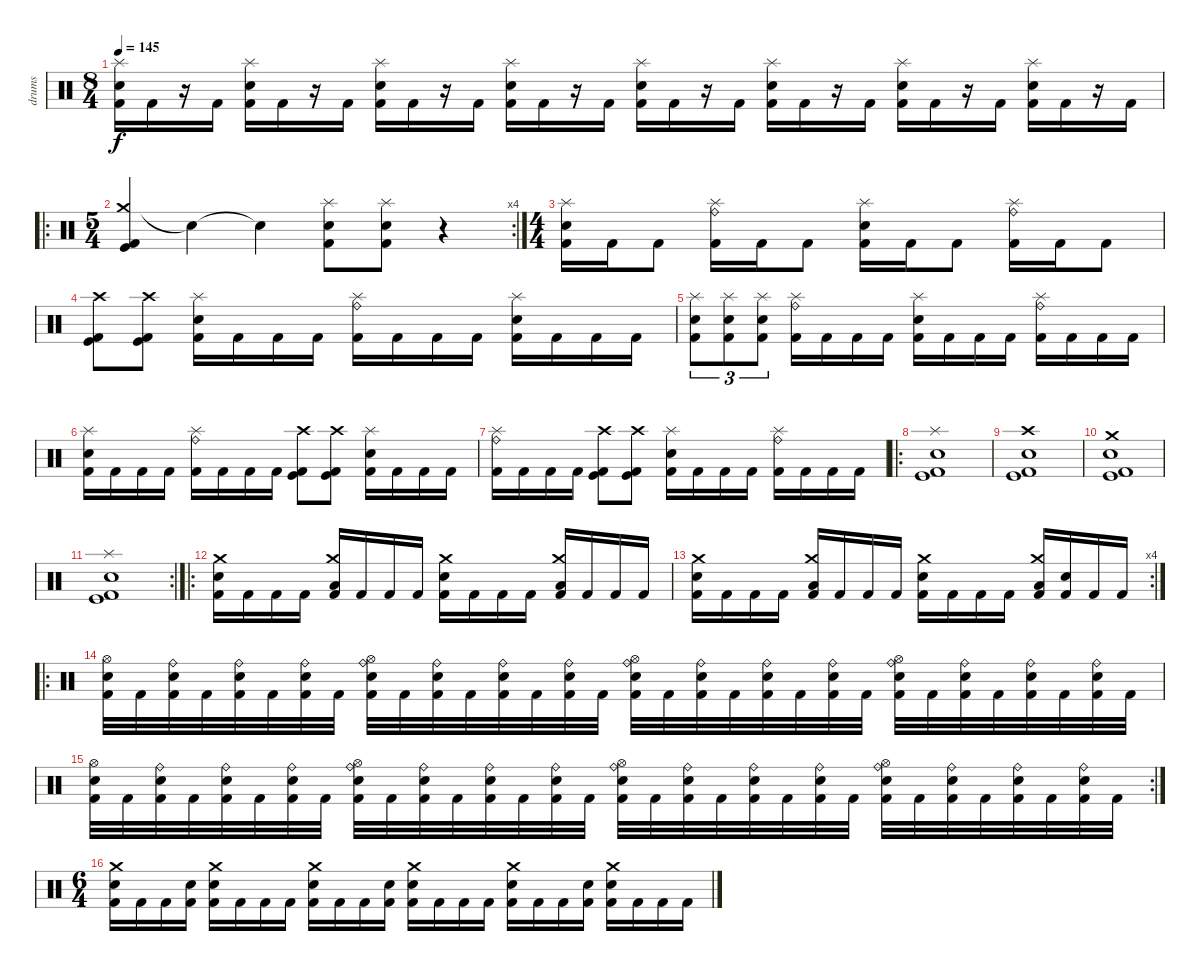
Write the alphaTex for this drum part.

\track ("drums" "drums") {instrument percussion}
\staff {score}
\articulation defaults
\ts (8 4)
\tempo 145
\clef neutral
\ks c
("Splash (hit)" "Electric Snare (hit)" "Kick (hit) 2").16{dy f} "Kick (hit) 2".16 r.16 "Kick (hit) 2".16 ("Splash (hit)" "Electric Snare (hit)" "Kick (hit) 2").16 "Kick (hit) 2".16 r.16 "Kick (hit) 2".16 ("Splash (hit)" "Electric Snare (hit)" "Kick (hit) 2").16 "Kick (hit) 2".16 r.16 "Kick (hit) 2".16 ("Splash (hit)" "Electric Snare (hit)" "Kick (hit) 2").16 "Kick (hit) 2".16 r.16 "Kick (hit) 2".16 ("Splash (hit)" "Electric Snare (hit)" "Kick (hit) 2").16 "Kick (hit) 2".16 r.16 "Kick (hit) 2".16 ("Splash (hit)" "Electric Snare (hit)" "Kick (hit) 2").16 "Kick (hit) 2".16 r.16 "Kick (hit) 2".16 ("Splash (hit)" "Electric Snare (hit)" "Kick (hit) 2").16 "Kick (hit) 2".16 r.16 "Kick (hit) 2".16 ("Splash (hit)" "Electric Snare (hit)" "Kick (hit) 2").16 "Kick (hit) 2".16 r.16 "Kick (hit) 2".16 |
\ro
\rc 4
\ts (5 4)
("Crash medium (hit)" "Kick (hit)" "Kick (hit) 2").4 "Snare (hit)"{t}.4 "Snare (hit)"{t}.4 ("Splash (hit)" "Electric Snare (hit)" "Kick (hit) 2").8 ("Splash (hit)" "Electric Snare (hit)" "Kick (hit) 2").8 r.4 |
\ts (4 4)
("Splash (hit)" "Electric Snare (hit)" "Kick (hit) 2").16 "Kick (hit) 2".16 "Kick (hit) 2".8 ("Splash (hit)" "Ride (bell)" "Kick (hit) 2").16 "Kick (hit) 2".16 "Kick (hit) 2".8 ("Splash (hit)" "Electric Snare (hit)" "Kick (hit) 2").16 "Kick (hit) 2".16 "Kick (hit) 2".8 ("Splash (hit)" "Ride (bell)" "Kick (hit) 2").16 "Kick (hit) 2".16 "Kick (hit) 2".8 |
("Crash high (hit)" "Kick (hit)" "Kick (hit) 2").8 ("Crash high (hit)" "Kick (hit)" "Kick (hit) 2").8 ("Splash (hit)" "Electric Snare (hit)" "Kick (hit) 2").16 "Kick (hit) 2".16 "Kick (hit) 2".16 "Kick (hit) 2".16 ("Splash (hit)" "Ride (bell)" "Kick (hit) 2").16 "Kick (hit) 2".16 "Kick (hit) 2".16 "Kick (hit) 2".16 ("Splash (hit)" "Electric Snare (hit)" "Kick (hit) 2").16 "Kick (hit) 2".16 "Kick (hit) 2".16 "Kick (hit) 2".16 |
("Splash (hit)" "Electric Snare (hit)" "Kick (hit) 2").8{tu (3 2)} ("Splash (hit)" "Electric Snare (hit)" "Kick (hit) 2").8{tu (3 2)} ("Splash (hit)" "Electric Snare (hit)" "Kick (hit) 2").8{tu (3 2)} ("Splash (hit)" "Ride (bell)" "Kick (hit) 2").16 "Kick (hit) 2".16 "Kick (hit) 2".16 "Kick (hit) 2".16 ("Splash (hit)" "Electric Snare (hit)" "Kick (hit) 2").16 "Kick (hit) 2".16 "Kick (hit) 2".16 "Kick (hit) 2".16 ("Splash (hit)" "Ride (bell)" "Kick (hit) 2").16 "Kick (hit) 2".16 "Kick (hit) 2".16 "Kick (hit) 2".16 |
("Splash (hit)" "Electric Snare (hit)" "Kick (hit) 2").16 "Kick (hit) 2".16 "Kick (hit) 2".16 "Kick (hit) 2".16 ("Splash (hit)" "Ride (bell)" "Kick (hit) 2").16 "Kick (hit) 2".16 "Kick (hit) 2".16 "Kick (hit) 2".16 ("Crash high (hit)" "Kick (hit)" "Kick (hit) 2").8 ("Crash high (hit)" "Kick (hit)" "Kick (hit) 2").8 ("Splash (hit)" "Electric Snare (hit)" "Kick (hit) 2").16 "Kick (hit) 2".16 "Kick (hit) 2".16 "Kick (hit) 2".16 |
("Splash (hit)" "Ride (bell)" "Kick (hit) 2").16 "Kick (hit) 2".16 "Kick (hit) 2".16 "Kick (hit) 2".16 ("Crash high (hit)" "Kick (hit)" "Kick (hit) 2").8 ("Crash high (hit)" "Kick (hit)" "Kick (hit) 2").8 ("Splash (hit)" "Electric Snare (hit)" "Kick (hit) 2").16 "Kick (hit) 2".16 "Kick (hit) 2".16 "Kick (hit) 2".16 ("Splash (hit)" "Ride (bell)" "Kick (hit) 2").16 "Kick (hit) 2".16 "Kick (hit) 2".16 "Kick (hit) 2".16 |
\ro
("Splash (hit)" "Electric Snare (hit)" "Kick (hit)" "Kick (hit) 2").1 |
("Crash high (hit)" "Electric Snare (hit)" "Kick (hit)" "Kick (hit) 2").1 |
("Crash medium (hit)" "Electric Snare (hit)" "Kick (hit)" "Kick (hit) 2").1 |
\rc 2
("Splash (hit)" "Electric Snare (hit)" "Kick (hit)" "Kick (hit) 2").1 |
\ro
("Crash medium (hit)" "Electric Snare (hit)" "Kick (hit) 2").16 "Kick (hit) 2".16 "Kick (hit) 2".16 "Kick (hit) 2".16 ("Crash medium (hit)" "Low Floor Tom (hit)" "Kick (hit) 2").16 "Kick (hit) 2".16 "Kick (hit) 2".16 "Kick (hit) 2".16 ("Crash medium (hit)" "Electric Snare (hit)" "Kick (hit) 2").16 "Kick (hit) 2".16 "Kick (hit) 2".16 "Kick (hit) 2".16 ("Crash medium (hit)" "Low Floor Tom (hit)" "Kick (hit) 2").16 "Kick (hit) 2".16 "Kick (hit) 2".16 "Kick (hit) 2".16 |
\rc 4
("Crash medium (hit)" "Electric Snare (hit)" "Kick (hit) 2").16 "Kick (hit) 2".16 "Kick (hit) 2".16 "Kick (hit) 2".16 ("Crash medium (hit)" "Low Floor Tom (hit)" "Kick (hit) 2").16 "Kick (hit) 2".16 "Kick (hit) 2".16 "Kick (hit) 2".16 ("Crash medium (hit)" "Electric Snare (hit)" "Kick (hit) 2").16 "Kick (hit) 2".16 "Kick (hit) 2".16 "Kick (hit) 2".16 ("Crash medium (hit)" "Low Floor Tom (hit)" "Kick (hit) 2").16 ("Electric Snare (hit)" "Kick (hit) 2").16 "Kick (hit) 2".16 "Kick (hit) 2".16 |
\ro
("Electric Snare (hit)" "Hi-Hat (open)" "Kick (hit) 2").32 "Kick (hit) 2".32 ("Electric Snare (hit)" "Ride (bell)" "Kick (hit) 2").32 "Kick (hit) 2".32 ("Electric Snare (hit)" "Ride (bell)" "Kick (hit) 2").32 "Kick (hit) 2".32 ("Electric Snare (hit)" "Ride (bell)" "Kick (hit) 2").32 "Kick (hit) 2".32 ("Electric Snare (hit)" "Hi-Hat (open)" "Ride (bell)" "Kick (hit) 2").32 "Kick (hit) 2".32 ("Electric Snare (hit)" "Ride (bell)" "Kick (hit) 2").32 "Kick (hit) 2".32 ("Electric Snare (hit)" "Ride (bell)" "Kick (hit) 2").32 "Kick (hit) 2".32 ("Electric Snare (hit)" "Ride (bell)" "Kick (hit) 2").32 "Kick (hit) 2".32 ("Electric Snare (hit)" "Hi-Hat (open)" "Ride (bell)" "Kick (hit) 2").32 "Kick (hit) 2".32 ("Electric Snare (hit)" "Ride (bell)" "Kick (hit) 2").32 "Kick (hit) 2".32 ("Electric Snare (hit)" "Ride (bell)" "Kick (hit) 2").32 "Kick (hit) 2".32 ("Electric Snare (hit)" "Ride (bell)" "Kick (hit) 2").32 "Kick (hit) 2".32 ("Electric Snare (hit)" "Hi-Hat (open)" "Ride (bell)" "Kick (hit) 2").32 "Kick (hit) 2".32 ("Electric Snare (hit)" "Ride (bell)" "Kick (hit) 2").32 "Kick (hit) 2".32 ("Electric Snare (hit)" "Ride (bell)" "Kick (hit) 2").32 "Kick (hit) 2".32 ("Electric Snare (hit)" "Ride (bell)" "Kick (hit) 2").32 "Kick (hit) 2".32 |
\rc 2
("Electric Snare (hit)" "Hi-Hat (open)" "Kick (hit) 2").32 "Kick (hit) 2".32 ("Electric Snare (hit)" "Ride (bell)" "Kick (hit) 2").32 "Kick (hit) 2".32 ("Electric Snare (hit)" "Ride (bell)" "Kick (hit) 2").32 "Kick (hit) 2".32 ("Electric Snare (hit)" "Ride (bell)" "Kick (hit) 2").32 "Kick (hit) 2".32 ("Electric Snare (hit)" "Hi-Hat (open)" "Ride (bell)" "Kick (hit) 2").32 "Kick (hit) 2".32 ("Electric Snare (hit)" "Ride (bell)" "Kick (hit) 2").32 "Kick (hit) 2".32 ("Electric Snare (hit)" "Ride (bell)" "Kick (hit) 2").32 "Kick (hit) 2".32 ("Electric Snare (hit)" "Ride (bell)" "Kick (hit) 2").32 "Kick (hit) 2".32 ("Electric Snare (hit)" "Hi-Hat (open)" "Ride (bell)" "Kick (hit) 2").32 "Kick (hit) 2".32 ("Electric Snare (hit)" "Ride (bell)" "Kick (hit) 2").32 "Kick (hit) 2".32 ("Electric Snare (hit)" "Ride (bell)" "Kick (hit) 2").32 "Kick (hit) 2".32 ("Electric Snare (hit)" "Ride (bell)" "Kick (hit) 2").32 "Kick (hit) 2".32 ("Electric Snare (hit)" "Hi-Hat (open)" "Ride (bell)" "Kick (hit) 2").32 "Kick (hit) 2".32 ("Electric Snare (hit)" "Ride (bell)" "Kick (hit) 2").32 "Kick (hit) 2".32 ("Electric Snare (hit)" "Ride (bell)" "Kick (hit) 2").32 "Kick (hit) 2".32 ("Electric Snare (hit)" "Ride (bell)" "Kick (hit) 2").32 "Kick (hit) 2".32 |
\ts (6 4)
("Crash medium (hit)" "Electric Snare (hit)" "Kick (hit) 2").16 "Kick (hit) 2".16 "Kick (hit) 2".16 ("Electric Snare (hit)" "Kick (hit) 2").16 ("Crash medium (hit)" "Electric Snare (hit)" "Kick (hit) 2").16 "Kick (hit) 2".16 "Kick (hit) 2".16 "Kick (hit) 2".16 ("Crash medium (hit)" "Electric Snare (hit)" "Kick (hit) 2").16 "Kick (hit) 2".16 "Kick (hit) 2".16 ("Electric Snare (hit)" "Kick (hit) 2").16 ("Crash medium (hit)" "Electric Snare (hit)" "Kick (hit) 2").16 "Kick (hit) 2".16 "Kick (hit) 2".16 "Kick (hit) 2".16 ("Crash medium (hit)" "Electric Snare (hit)" "Kick (hit) 2").16 "Kick (hit) 2".16 "Kick (hit) 2".16 ("Electric Snare (hit)" "Kick (hit) 2").16 ("Crash medium (hit)" "Electric Snare (hit)" "Kick (hit) 2").16 "Kick (hit) 2".16 "Kick (hit) 2".16 "Kick (hit) 2".16
